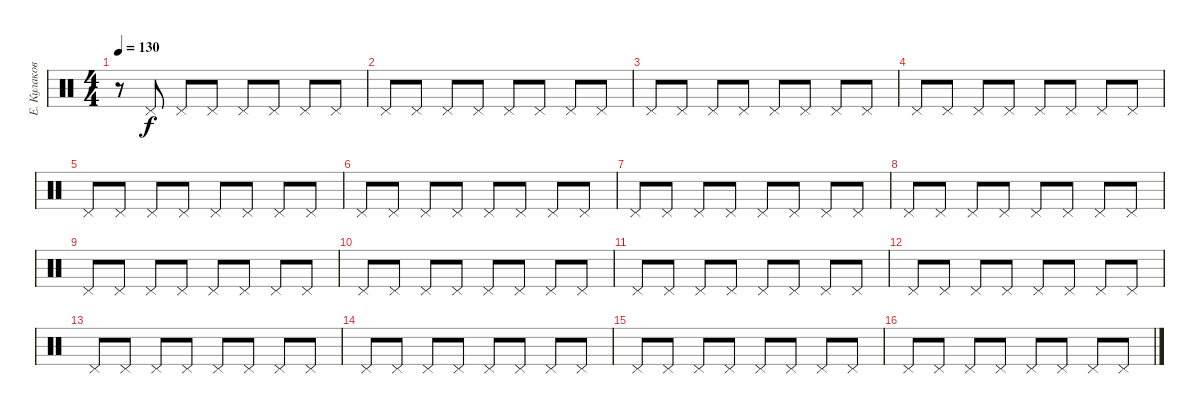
\track ("Е. Кулаков Hi-Hat" "Е. Кулаков") {instrument percussion}
\staff {score}
\articulation defaults
\ts (4 4)
\tempo 130
\clef neutral
\ks c
r.8{dy f} "Pedal Hi-Hat (hit)".8 "Pedal Hi-Hat (hit)".8 "Pedal Hi-Hat (hit)".8 "Pedal Hi-Hat (hit)".8 "Pedal Hi-Hat (hit)".8 "Pedal Hi-Hat (hit)".8 "Pedal Hi-Hat (hit)".8 |
"Pedal Hi-Hat (hit)".8 "Pedal Hi-Hat (hit)".8 "Pedal Hi-Hat (hit)".8 "Pedal Hi-Hat (hit)".8 "Pedal Hi-Hat (hit)".8 "Pedal Hi-Hat (hit)".8 "Pedal Hi-Hat (hit)".8 "Pedal Hi-Hat (hit)".8 |
"Pedal Hi-Hat (hit)".8 "Pedal Hi-Hat (hit)".8 "Pedal Hi-Hat (hit)".8 "Pedal Hi-Hat (hit)".8 "Pedal Hi-Hat (hit)".8 "Pedal Hi-Hat (hit)".8 "Pedal Hi-Hat (hit)".8 "Pedal Hi-Hat (hit)".8 |
"Pedal Hi-Hat (hit)".8 "Pedal Hi-Hat (hit)".8 "Pedal Hi-Hat (hit)".8 "Pedal Hi-Hat (hit)".8 "Pedal Hi-Hat (hit)".8 "Pedal Hi-Hat (hit)".8 "Pedal Hi-Hat (hit)".8 "Pedal Hi-Hat (hit)".8 |
"Pedal Hi-Hat (hit)".8 "Pedal Hi-Hat (hit)".8 "Pedal Hi-Hat (hit)".8 "Pedal Hi-Hat (hit)".8 "Pedal Hi-Hat (hit)".8 "Pedal Hi-Hat (hit)".8 "Pedal Hi-Hat (hit)".8 "Pedal Hi-Hat (hit)".8 |
"Pedal Hi-Hat (hit)".8 "Pedal Hi-Hat (hit)".8 "Pedal Hi-Hat (hit)".8 "Pedal Hi-Hat (hit)".8 "Pedal Hi-Hat (hit)".8 "Pedal Hi-Hat (hit)".8 "Pedal Hi-Hat (hit)".8 "Pedal Hi-Hat (hit)".8 |
"Pedal Hi-Hat (hit)".8 "Pedal Hi-Hat (hit)".8 "Pedal Hi-Hat (hit)".8 "Pedal Hi-Hat (hit)".8 "Pedal Hi-Hat (hit)".8 "Pedal Hi-Hat (hit)".8 "Pedal Hi-Hat (hit)".8 "Pedal Hi-Hat (hit)".8 |
"Pedal Hi-Hat (hit)".8 "Pedal Hi-Hat (hit)".8 "Pedal Hi-Hat (hit)".8 "Pedal Hi-Hat (hit)".8 "Pedal Hi-Hat (hit)".8 "Pedal Hi-Hat (hit)".8 "Pedal Hi-Hat (hit)".8 "Pedal Hi-Hat (hit)".8 |
"Pedal Hi-Hat (hit)".8 "Pedal Hi-Hat (hit)".8 "Pedal Hi-Hat (hit)".8 "Pedal Hi-Hat (hit)".8 "Pedal Hi-Hat (hit)".8 "Pedal Hi-Hat (hit)".8 "Pedal Hi-Hat (hit)".8 "Pedal Hi-Hat (hit)".8 |
"Pedal Hi-Hat (hit)".8 "Pedal Hi-Hat (hit)".8 "Pedal Hi-Hat (hit)".8 "Pedal Hi-Hat (hit)".8 "Pedal Hi-Hat (hit)".8 "Pedal Hi-Hat (hit)".8 "Pedal Hi-Hat (hit)".8 "Pedal Hi-Hat (hit)".8 |
"Pedal Hi-Hat (hit)".8 "Pedal Hi-Hat (hit)".8 "Pedal Hi-Hat (hit)".8 "Pedal Hi-Hat (hit)".8 "Pedal Hi-Hat (hit)".8 "Pedal Hi-Hat (hit)".8 "Pedal Hi-Hat (hit)".8 "Pedal Hi-Hat (hit)".8 |
"Pedal Hi-Hat (hit)".8 "Pedal Hi-Hat (hit)".8 "Pedal Hi-Hat (hit)".8 "Pedal Hi-Hat (hit)".8 "Pedal Hi-Hat (hit)".8 "Pedal Hi-Hat (hit)".8 "Pedal Hi-Hat (hit)".8 "Pedal Hi-Hat (hit)".8 |
"Pedal Hi-Hat (hit)".8 "Pedal Hi-Hat (hit)".8 "Pedal Hi-Hat (hit)".8 "Pedal Hi-Hat (hit)".8 "Pedal Hi-Hat (hit)".8 "Pedal Hi-Hat (hit)".8 "Pedal Hi-Hat (hit)".8 "Pedal Hi-Hat (hit)".8 |
"Pedal Hi-Hat (hit)".8 "Pedal Hi-Hat (hit)".8 "Pedal Hi-Hat (hit)".8 "Pedal Hi-Hat (hit)".8 "Pedal Hi-Hat (hit)".8 "Pedal Hi-Hat (hit)".8 "Pedal Hi-Hat (hit)".8 "Pedal Hi-Hat (hit)".8 |
"Pedal Hi-Hat (hit)".8 "Pedal Hi-Hat (hit)".8 "Pedal Hi-Hat (hit)".8 "Pedal Hi-Hat (hit)".8 "Pedal Hi-Hat (hit)".8 "Pedal Hi-Hat (hit)".8 "Pedal Hi-Hat (hit)".8 "Pedal Hi-Hat (hit)".8 |
"Pedal Hi-Hat (hit)".8 "Pedal Hi-Hat (hit)".8 "Pedal Hi-Hat (hit)".8 "Pedal Hi-Hat (hit)".8 "Pedal Hi-Hat (hit)".8 "Pedal Hi-Hat (hit)".8 "Pedal Hi-Hat (hit)".8 "Pedal Hi-Hat (hit)".8
